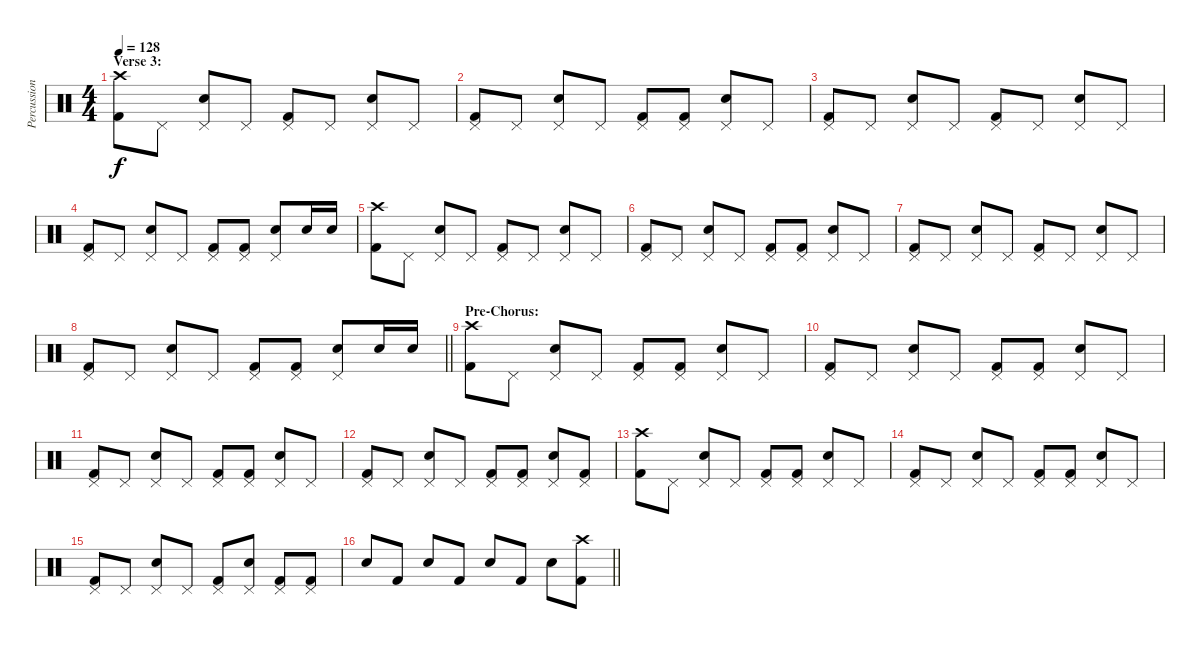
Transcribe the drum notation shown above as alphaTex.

\track ("Percussion" "Percussion") {instrument percussion}
\staff {score}
\articulation defaults
\ts (4 4)
\section ("" "Verse 3:")
\tempo 128
\clef neutral
\ks c
("Crash high (hit)" "Kick (hit) 2").8{dy f} "Pedal Hi-Hat (hit)".8 ("Pedal Hi-Hat (hit)" "Electric Snare (hit)").8 "Pedal Hi-Hat (hit)".8 ("Pedal Hi-Hat (hit)" "Kick (hit) 2").8 "Pedal Hi-Hat (hit)".8 ("Pedal Hi-Hat (hit)" "Electric Snare (hit)").8 "Pedal Hi-Hat (hit)".8 |
("Pedal Hi-Hat (hit)" "Kick (hit) 2").8 "Pedal Hi-Hat (hit)".8 ("Pedal Hi-Hat (hit)" "Electric Snare (hit)").8 "Pedal Hi-Hat (hit)".8 ("Pedal Hi-Hat (hit)" "Kick (hit) 2").8 ("Pedal Hi-Hat (hit)" "Kick (hit) 2").8 ("Pedal Hi-Hat (hit)" "Electric Snare (hit)").8 "Pedal Hi-Hat (hit)".8 |
("Pedal Hi-Hat (hit)" "Kick (hit) 2").8 "Pedal Hi-Hat (hit)".8 ("Pedal Hi-Hat (hit)" "Electric Snare (hit)").8 "Pedal Hi-Hat (hit)".8 ("Pedal Hi-Hat (hit)" "Kick (hit) 2").8 "Pedal Hi-Hat (hit)".8 ("Pedal Hi-Hat (hit)" "Electric Snare (hit)").8 "Pedal Hi-Hat (hit)".8 |
("Pedal Hi-Hat (hit)" "Kick (hit) 2").8 "Pedal Hi-Hat (hit)".8 ("Pedal Hi-Hat (hit)" "Electric Snare (hit)").8 "Pedal Hi-Hat (hit)".8 ("Pedal Hi-Hat (hit)" "Kick (hit) 2").8 ("Pedal Hi-Hat (hit)" "Kick (hit) 2").8 ("Pedal Hi-Hat (hit)" "Electric Snare (hit)").8 "Electric Snare (hit)".16 "Electric Snare (hit)".16 |
("Crash high (hit)" "Kick (hit) 2").8 "Pedal Hi-Hat (hit)".8 ("Pedal Hi-Hat (hit)" "Electric Snare (hit)").8 "Pedal Hi-Hat (hit)".8 ("Pedal Hi-Hat (hit)" "Kick (hit) 2").8 "Pedal Hi-Hat (hit)".8 ("Pedal Hi-Hat (hit)" "Electric Snare (hit)").8 "Pedal Hi-Hat (hit)".8 |
("Pedal Hi-Hat (hit)" "Kick (hit) 2").8 "Pedal Hi-Hat (hit)".8 ("Pedal Hi-Hat (hit)" "Electric Snare (hit)").8 "Pedal Hi-Hat (hit)".8 ("Pedal Hi-Hat (hit)" "Kick (hit) 2").8 ("Pedal Hi-Hat (hit)" "Kick (hit) 2").8 ("Pedal Hi-Hat (hit)" "Electric Snare (hit)").8 "Pedal Hi-Hat (hit)".8 |
("Pedal Hi-Hat (hit)" "Kick (hit) 2").8 "Pedal Hi-Hat (hit)".8 ("Pedal Hi-Hat (hit)" "Electric Snare (hit)").8 "Pedal Hi-Hat (hit)".8 ("Pedal Hi-Hat (hit)" "Kick (hit) 2").8 "Pedal Hi-Hat (hit)".8 ("Pedal Hi-Hat (hit)" "Electric Snare (hit)").8 "Pedal Hi-Hat (hit)".8 |
\barLineRight lightlight
("Pedal Hi-Hat (hit)" "Kick (hit) 2").8 "Pedal Hi-Hat (hit)".8 ("Pedal Hi-Hat (hit)" "Electric Snare (hit)").8 "Pedal Hi-Hat (hit)".8 ("Pedal Hi-Hat (hit)" "Kick (hit) 2").8 ("Pedal Hi-Hat (hit)" "Kick (hit) 2").8 ("Pedal Hi-Hat (hit)" "Electric Snare (hit)").8 "Electric Snare (hit)".16 "Electric Snare (hit)".16 |
\section ("" "Pre-Chorus:")
("Crash high (hit)" "Kick (hit) 2").8 "Pedal Hi-Hat (hit)".8 ("Pedal Hi-Hat (hit)" "Electric Snare (hit)").8 "Pedal Hi-Hat (hit)".8 ("Pedal Hi-Hat (hit)" "Kick (hit) 2").8 ("Pedal Hi-Hat (hit)" "Kick (hit) 2").8 ("Pedal Hi-Hat (hit)" "Electric Snare (hit)").8 "Pedal Hi-Hat (hit)".8 |
("Pedal Hi-Hat (hit)" "Kick (hit) 2").8 "Pedal Hi-Hat (hit)".8 ("Pedal Hi-Hat (hit)" "Electric Snare (hit)").8 "Pedal Hi-Hat (hit)".8 ("Pedal Hi-Hat (hit)" "Kick (hit) 2").8 ("Pedal Hi-Hat (hit)" "Kick (hit) 2").8 ("Pedal Hi-Hat (hit)" "Electric Snare (hit)").8 "Pedal Hi-Hat (hit)".8 |
("Pedal Hi-Hat (hit)" "Kick (hit) 2").8 "Pedal Hi-Hat (hit)".8 ("Pedal Hi-Hat (hit)" "Electric Snare (hit)").8 "Pedal Hi-Hat (hit)".8 ("Pedal Hi-Hat (hit)" "Kick (hit) 2").8 ("Pedal Hi-Hat (hit)" "Kick (hit) 2").8 ("Pedal Hi-Hat (hit)" "Electric Snare (hit)").8 "Pedal Hi-Hat (hit)".8 |
("Pedal Hi-Hat (hit)" "Kick (hit) 2").8 "Pedal Hi-Hat (hit)".8 ("Pedal Hi-Hat (hit)" "Electric Snare (hit)").8 "Pedal Hi-Hat (hit)".8 ("Pedal Hi-Hat (hit)" "Kick (hit) 2").8 ("Pedal Hi-Hat (hit)" "Kick (hit) 2").8 ("Pedal Hi-Hat (hit)" "Electric Snare (hit)").8 ("Pedal Hi-Hat (hit)" "Kick (hit) 2").8 |
("Crash high (hit)" "Kick (hit) 2").8 "Pedal Hi-Hat (hit)".8 ("Pedal Hi-Hat (hit)" "Electric Snare (hit)").8 "Pedal Hi-Hat (hit)".8 ("Pedal Hi-Hat (hit)" "Kick (hit) 2").8 ("Pedal Hi-Hat (hit)" "Kick (hit) 2").8 ("Pedal Hi-Hat (hit)" "Electric Snare (hit)").8 "Pedal Hi-Hat (hit)".8 |
("Pedal Hi-Hat (hit)" "Kick (hit) 2").8 "Pedal Hi-Hat (hit)".8 ("Pedal Hi-Hat (hit)" "Electric Snare (hit)").8 "Pedal Hi-Hat (hit)".8 ("Pedal Hi-Hat (hit)" "Kick (hit) 2").8 ("Pedal Hi-Hat (hit)" "Kick (hit) 2").8 ("Pedal Hi-Hat (hit)" "Electric Snare (hit)").8 "Pedal Hi-Hat (hit)".8 |
("Pedal Hi-Hat (hit)" "Kick (hit) 2").8 "Pedal Hi-Hat (hit)".8 ("Pedal Hi-Hat (hit)" "Electric Snare (hit)").8 "Pedal Hi-Hat (hit)".8 ("Pedal Hi-Hat (hit)" "Kick (hit) 2").8 ("Pedal Hi-Hat (hit)" "Electric Snare (hit)").8 ("Pedal Hi-Hat (hit)" "Kick (hit) 2").8 ("Pedal Hi-Hat (hit)" "Kick (hit) 2").8 |
\barLineRight lightlight "Electric Snare (hit)".8 "Kick (hit) 2".8 "Electric Snare (hit)".8 "Kick (hit) 2".8 "Electric Snare (hit)".8 "Kick (hit) 2".8 "Electric Snare (hit)".8
("Crash high (hit)" "Kick (hit) 2").8
